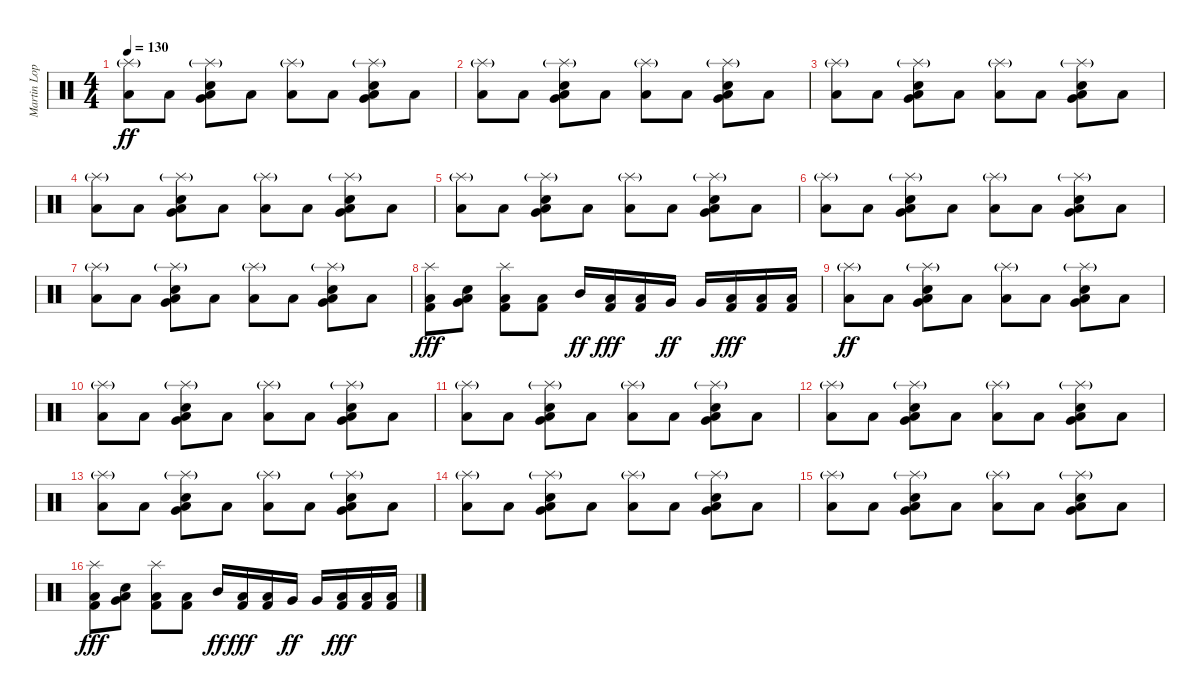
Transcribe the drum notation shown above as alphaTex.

\track ("Martin Lopez" "Martin Lop") {instrument percussion}
\staff {score}
\articulation defaults
\ts (4 4)
\tempo 130
\clef neutral
\ks c
("Splash (hit)"{g} "Low Floor Tom (hit)").8{dy ff volume 11} "Low Floor Tom (hit)".8 ("Splash (hit)"{g} "Very Low Tom (hit)" "Snare (hit) 2" "Low Floor Tom (hit)").8 "Low Floor Tom (hit)".8 ("Splash (hit)"{g} "Low Floor Tom (hit)").8 "Low Floor Tom (hit)".8 ("Splash (hit)"{g} "Very Low Tom (hit)" "Snare (hit) 2" "Low Floor Tom (hit)").8 "Low Floor Tom (hit)".8 |
("Splash (hit)"{g} "Low Floor Tom (hit)").8 "Low Floor Tom (hit)".8 ("Splash (hit)"{g} "Very Low Tom (hit)" "Snare (hit) 2" "Low Floor Tom (hit)").8 "Low Floor Tom (hit)".8 ("Splash (hit)"{g} "Low Floor Tom (hit)").8 "Low Floor Tom (hit)".8 ("Splash (hit)"{g} "Very Low Tom (hit)" "Snare (hit) 2" "Low Floor Tom (hit)").8 "Low Floor Tom (hit)".8 |
("Splash (hit)"{g} "Low Floor Tom (hit)").8 "Low Floor Tom (hit)".8 ("Splash (hit)"{g} "Very Low Tom (hit)" "Snare (hit) 2" "Low Floor Tom (hit)").8 "Low Floor Tom (hit)".8 ("Splash (hit)"{g} "Low Floor Tom (hit)").8 "Low Floor Tom (hit)".8 ("Splash (hit)"{g} "Very Low Tom (hit)" "Snare (hit) 2" "Low Floor Tom (hit)").8 "Low Floor Tom (hit)".8 |
("Splash (hit)"{g} "Low Floor Tom (hit)").8 "Low Floor Tom (hit)".8 ("Splash (hit)"{g} "Very Low Tom (hit)" "Snare (hit) 2" "Low Floor Tom (hit)").8 "Low Floor Tom (hit)".8 ("Splash (hit)"{g} "Low Floor Tom (hit)").8 "Low Floor Tom (hit)".8 ("Splash (hit)"{g} "Very Low Tom (hit)" "Snare (hit) 2" "Low Floor Tom (hit)").8 "Low Floor Tom (hit)".8 |
("Splash (hit)"{g} "Low Floor Tom (hit)").8{volume 9} "Low Floor Tom (hit)".8 ("Splash (hit)"{g} "Very Low Tom (hit)" "Snare (hit) 2" "Low Floor Tom (hit)").8 "Low Floor Tom (hit)".8 ("Splash (hit)"{g} "Low Floor Tom (hit)").8 "Low Floor Tom (hit)".8 ("Splash (hit)"{g} "Very Low Tom (hit)" "Snare (hit) 2" "Low Floor Tom (hit)").8 "Low Floor Tom (hit)".8 |
("Splash (hit)"{g} "Low Floor Tom (hit)").8 "Low Floor Tom (hit)".8 ("Splash (hit)"{g} "Very Low Tom (hit)" "Snare (hit) 2" "Low Floor Tom (hit)").8 "Low Floor Tom (hit)".8 ("Splash (hit)"{g} "Low Floor Tom (hit)").8 "Low Floor Tom (hit)".8 ("Splash (hit)"{g} "Very Low Tom (hit)" "Snare (hit) 2" "Low Floor Tom (hit)").8 "Low Floor Tom (hit)".8 |
("Splash (hit)"{g} "Low Floor Tom (hit)").8 "Low Floor Tom (hit)".8 ("Splash (hit)"{g} "Very Low Tom (hit)" "Snare (hit) 2" "Low Floor Tom (hit)").8 "Low Floor Tom (hit)".8 ("Splash (hit)"{g} "Low Floor Tom (hit)").8 "Low Floor Tom (hit)".8 ("Splash (hit)"{g} "Very Low Tom (hit)" "Snare (hit) 2" "Low Floor Tom (hit)").8 "Low Floor Tom (hit)".8 |
("Splash (hit)" "Kick (hit) 2" "Low Floor Tom (hit)").8{dy fff} ("Very Low Tom (hit)" "Snare (hit) 2" "Low Floor Tom (hit)").8 ("Splash (hit)" "Kick (hit) 2" "Low Floor Tom (hit)").8 ("Kick (hit) 2" "Low Floor Tom (hit)").8 "Mid Tom (hit)".16{dy ff} ("Kick (hit) 2" "Low Floor Tom (hit)").16{dy fff} ("Kick (hit) 2" "Low Floor Tom (hit)").16 "Very Low Tom (hit)".16{dy ff} "Very Low Tom (hit)".16 ("Kick (hit) 2" "Low Floor Tom (hit)").16{dy fff} ("Kick (hit) 2" "Low Floor Tom (hit)").16 ("Kick (hit) 2" "Low Floor Tom (hit)").16 |
("Splash (hit)"{g} "Low Floor Tom (hit)").8{dy ff volume 7} "Low Floor Tom (hit)".8 ("Splash (hit)"{g} "Very Low Tom (hit)" "Snare (hit) 2" "Low Floor Tom (hit)").8 "Low Floor Tom (hit)".8 ("Splash (hit)"{g} "Low Floor Tom (hit)").8 "Low Floor Tom (hit)".8 ("Splash (hit)"{g} "Very Low Tom (hit)" "Snare (hit) 2" "Low Floor Tom (hit)").8 "Low Floor Tom (hit)".8 |
("Splash (hit)"{g} "Low Floor Tom (hit)").8 "Low Floor Tom (hit)".8 ("Splash (hit)"{g} "Very Low Tom (hit)" "Snare (hit) 2" "Low Floor Tom (hit)").8 "Low Floor Tom (hit)".8 ("Splash (hit)"{g} "Low Floor Tom (hit)").8 "Low Floor Tom (hit)".8 ("Splash (hit)"{g} "Very Low Tom (hit)" "Snare (hit) 2" "Low Floor Tom (hit)").8 "Low Floor Tom (hit)".8 |
("Splash (hit)"{g} "Low Floor Tom (hit)").8 "Low Floor Tom (hit)".8 ("Splash (hit)"{g} "Very Low Tom (hit)" "Snare (hit) 2" "Low Floor Tom (hit)").8 "Low Floor Tom (hit)".8 ("Splash (hit)"{g} "Low Floor Tom (hit)").8 "Low Floor Tom (hit)".8 ("Splash (hit)"{g} "Very Low Tom (hit)" "Snare (hit) 2" "Low Floor Tom (hit)").8 "Low Floor Tom (hit)".8 |
("Splash (hit)"{g} "Low Floor Tom (hit)").8 "Low Floor Tom (hit)".8 ("Splash (hit)"{g} "Very Low Tom (hit)" "Snare (hit) 2" "Low Floor Tom (hit)").8 "Low Floor Tom (hit)".8 ("Splash (hit)"{g} "Low Floor Tom (hit)").8 "Low Floor Tom (hit)".8 ("Splash (hit)"{g} "Very Low Tom (hit)" "Snare (hit) 2" "Low Floor Tom (hit)").8 "Low Floor Tom (hit)".8 |
("Splash (hit)"{g} "Low Floor Tom (hit)").8{volume 5} "Low Floor Tom (hit)".8 ("Splash (hit)"{g} "Very Low Tom (hit)" "Snare (hit) 2" "Low Floor Tom (hit)").8 "Low Floor Tom (hit)".8 ("Splash (hit)"{g} "Low Floor Tom (hit)").8 "Low Floor Tom (hit)".8 ("Splash (hit)"{g} "Very Low Tom (hit)" "Snare (hit) 2" "Low Floor Tom (hit)").8 "Low Floor Tom (hit)".8 |
("Splash (hit)"{g} "Low Floor Tom (hit)").8 "Low Floor Tom (hit)".8 ("Splash (hit)"{g} "Very Low Tom (hit)" "Snare (hit) 2" "Low Floor Tom (hit)").8 "Low Floor Tom (hit)".8 ("Splash (hit)"{g} "Low Floor Tom (hit)").8 "Low Floor Tom (hit)".8 ("Splash (hit)"{g} "Very Low Tom (hit)" "Snare (hit) 2" "Low Floor Tom (hit)").8 "Low Floor Tom (hit)".8 |
("Splash (hit)"{g} "Low Floor Tom (hit)").8 "Low Floor Tom (hit)".8 ("Splash (hit)"{g} "Very Low Tom (hit)" "Snare (hit) 2" "Low Floor Tom (hit)").8 "Low Floor Tom (hit)".8 ("Splash (hit)"{g} "Low Floor Tom (hit)").8 "Low Floor Tom (hit)".8 ("Splash (hit)"{g} "Very Low Tom (hit)" "Snare (hit) 2" "Low Floor Tom (hit)").8 "Low Floor Tom (hit)".8 |
("Splash (hit)" "Kick (hit) 2" "Low Floor Tom (hit)").8{dy fff} ("Very Low Tom (hit)" "Snare (hit) 2" "Low Floor Tom (hit)").8 ("Splash (hit)" "Kick (hit) 2" "Low Floor Tom (hit)").8 ("Kick (hit) 2" "Low Floor Tom (hit)").8 "Mid Tom (hit)".16{dy ff} ("Kick (hit) 2" "Low Floor Tom (hit)").16{dy fff} ("Kick (hit) 2" "Low Floor Tom (hit)").16 "Very Low Tom (hit)".16{dy ff} "Very Low Tom (hit)".16 ("Kick (hit) 2" "Low Floor Tom (hit)").16{dy fff} ("Kick (hit) 2" "Low Floor Tom (hit)").16 ("Kick (hit) 2" "Low Floor Tom (hit)").16
